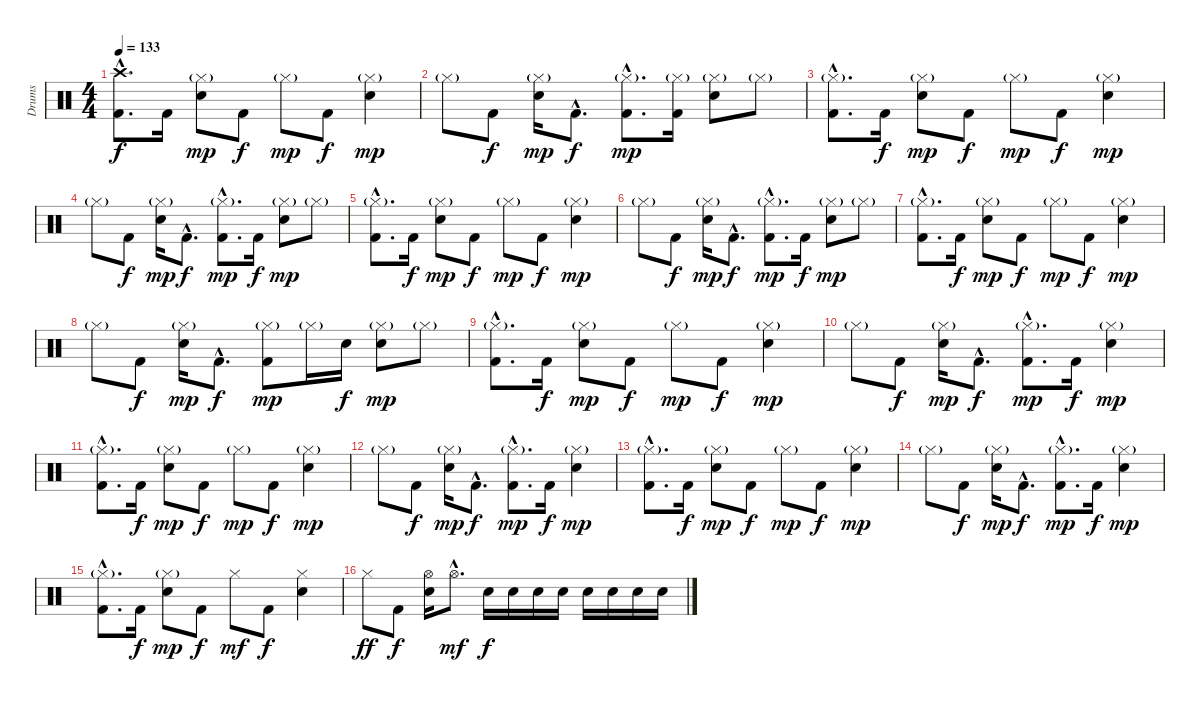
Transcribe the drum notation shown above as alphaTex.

\track ("Drums" "Drums") {instrument percussion}
\staff {score}
\articulation defaults
\ts (4 4)
\tempo 133
\clef neutral
\ks c
("Crash high (hit)"{hac} "Kick (hit) 2"{hac}).8{d dy f} "Kick (hit) 2".16 ("Hi-Hat (closed)"{g} "Snare (hit) 2").8{dy mp} "Kick (hit) 2".8{dy f} "Hi-Hat (closed)"{g}.8{dy mp} "Kick (hit) 2".8{dy f} ("Hi-Hat (closed)"{g} "Snare (hit) 2").4{dy mp} |
"Hi-Hat (closed)"{g}.8 "Kick (hit) 2".8{dy f} ("Hi-Hat (closed)"{g} "Snare (hit) 2").16{dy mp} "Kick (hit) 2"{hac}.8{d dy f} ("Hi-Hat (closed)"{g hac} "Kick (hit) 2"{hac}).8{d dy mp} ("Hi-Hat (closed)"{g} "Kick (hit) 2").16 ("Hi-Hat (closed)"{g} "Snare (hit) 2").8 "Hi-Hat (closed)"{g}.8 |
("Hi-Hat (closed)"{g hac} "Kick (hit) 2"{hac}).8{d} "Kick (hit) 2".16{dy f} ("Hi-Hat (closed)"{g} "Snare (hit) 2").8{dy mp} "Kick (hit) 2".8{dy f} "Hi-Hat (closed)"{g}.8{dy mp} "Kick (hit) 2".8{dy f} ("Hi-Hat (closed)"{g} "Snare (hit) 2").4{dy mp} |
"Hi-Hat (closed)"{g}.8 "Kick (hit) 2".8{dy f} ("Hi-Hat (closed)"{g} "Snare (hit) 2").16{dy mp} "Kick (hit) 2"{hac}.8{d dy f} ("Hi-Hat (closed)"{g hac} "Kick (hit) 2"{hac}).8{d dy mp} "Kick (hit) 2".16{dy f} ("Hi-Hat (closed)"{g} "Snare (hit) 2").8{dy mp} "Hi-Hat (closed)"{g}.8 |
("Hi-Hat (closed)"{g hac} "Kick (hit) 2"{hac}).8{d} "Kick (hit) 2".16{dy f} ("Hi-Hat (closed)"{g} "Snare (hit) 2").8{dy mp} "Kick (hit) 2".8{dy f} "Hi-Hat (closed)"{g}.8{dy mp} "Kick (hit) 2".8{dy f} ("Hi-Hat (closed)"{g} "Snare (hit) 2").4{dy mp} |
"Hi-Hat (closed)"{g}.8 "Kick (hit) 2".8{dy f} ("Hi-Hat (closed)"{g} "Snare (hit) 2").16{dy mp} "Kick (hit) 2"{hac}.8{d dy f} ("Hi-Hat (closed)"{g hac} "Kick (hit) 2"{hac}).8{d dy mp} "Kick (hit) 2".16{dy f} ("Hi-Hat (closed)"{g} "Snare (hit) 2").8{dy mp} "Hi-Hat (closed)"{g}.8 |
("Hi-Hat (closed)"{g hac} "Kick (hit) 2"{hac}).8{d} "Kick (hit) 2".16{dy f} ("Hi-Hat (closed)"{g} "Snare (hit) 2").8{dy mp} "Kick (hit) 2".8{dy f} "Hi-Hat (closed)"{g}.8{dy mp} "Kick (hit) 2".8{dy f} ("Hi-Hat (closed)"{g} "Snare (hit) 2").4{dy mp} |
"Hi-Hat (closed)"{g}.8 "Kick (hit) 2".8{dy f} ("Hi-Hat (closed)"{g} "Snare (hit) 2").16{dy mp} "Kick (hit) 2"{hac}.8{d dy f} ("Hi-Hat (closed)"{g} "Kick (hit) 2").8{dy mp} "Hi-Hat (closed)"{g}.16 "Snare (hit) 2".16{dy f} ("Hi-Hat (closed)"{g} "Snare (hit) 2").8{dy mp} "Hi-Hat (closed)"{g}.8 |
("Hi-Hat (closed)"{g hac} "Kick (hit) 2"{hac}).8{d} "Kick (hit) 2".16{dy f} ("Hi-Hat (closed)"{g} "Snare (hit) 2").8{dy mp} "Kick (hit) 2".8{dy f} "Hi-Hat (closed)"{g}.8{dy mp} "Kick (hit) 2".8{dy f} ("Hi-Hat (closed)"{g} "Snare (hit) 2").4{dy mp} |
"Hi-Hat (closed)"{g}.8 "Kick (hit) 2".8{dy f} ("Hi-Hat (closed)"{g} "Snare (hit) 2").16{dy mp} "Kick (hit) 2"{hac}.8{d dy f} ("Hi-Hat (closed)"{g hac} "Kick (hit) 2"{hac}).8{d dy mp} "Kick (hit) 2".16{dy f} ("Hi-Hat (closed)"{g} "Snare (hit) 2").4{dy mp} |
("Hi-Hat (closed)"{g hac} "Kick (hit) 2"{hac}).8{d} "Kick (hit) 2".16{dy f} ("Hi-Hat (closed)"{g} "Snare (hit) 2").8{dy mp} "Kick (hit) 2".8{dy f} "Hi-Hat (closed)"{g}.8{dy mp} "Kick (hit) 2".8{dy f} ("Hi-Hat (closed)"{g} "Snare (hit) 2").4{dy mp} |
"Hi-Hat (closed)"{g}.8 "Kick (hit) 2".8{dy f} ("Hi-Hat (closed)"{g} "Snare (hit) 2").16{dy mp} "Kick (hit) 2"{hac}.8{d dy f} ("Hi-Hat (closed)"{g hac} "Kick (hit) 2"{hac}).8{d dy mp} "Kick (hit) 2".16{dy f} ("Hi-Hat (closed)"{g} "Snare (hit) 2").4{dy mp} |
("Hi-Hat (closed)"{g hac} "Kick (hit) 2"{hac}).8{d} "Kick (hit) 2".16{dy f} ("Hi-Hat (closed)"{g} "Snare (hit) 2").8{dy mp} "Kick (hit) 2".8{dy f} "Hi-Hat (closed)"{g}.8{dy mp} "Kick (hit) 2".8{dy f} ("Hi-Hat (closed)"{g} "Snare (hit) 2").4{dy mp} |
"Hi-Hat (closed)"{g}.8 "Kick (hit) 2".8{dy f} ("Hi-Hat (closed)"{g} "Snare (hit) 2").16{dy mp} "Kick (hit) 2"{hac}.8{d dy f} ("Hi-Hat (closed)"{g hac} "Kick (hit) 2"{hac}).8{d dy mp} "Kick (hit) 2".16{dy f} ("Hi-Hat (closed)"{g} "Snare (hit) 2").4{dy mp} |
("Hi-Hat (closed)"{g hac} "Kick (hit) 2"{hac}).8{d} "Kick (hit) 2".16{dy f} ("Hi-Hat (closed)"{g} "Snare (hit) 2").8{dy mp} "Kick (hit) 2".8{dy f} "Hi-Hat (closed)".8{dy mf} "Kick (hit) 2".8{dy f} ("Hi-Hat (closed)" "Snare (hit) 2").4 |
"Hi-Hat (closed)".8{dy ff} "Kick (hit) 2".8{dy f} ("Hi-Hat (open)" "Snare (hit) 2").16 "Hi-Hat (open)"{hac}.8{d dy mf} "Snare (hit) 2".16{dy f} "Snare (hit) 2".16 "Snare (hit) 2".16 "Snare (hit) 2".16 "Snare (hit) 2".16 "Snare (hit) 2".16 "Snare (hit) 2".16 "Snare (hit) 2".16
